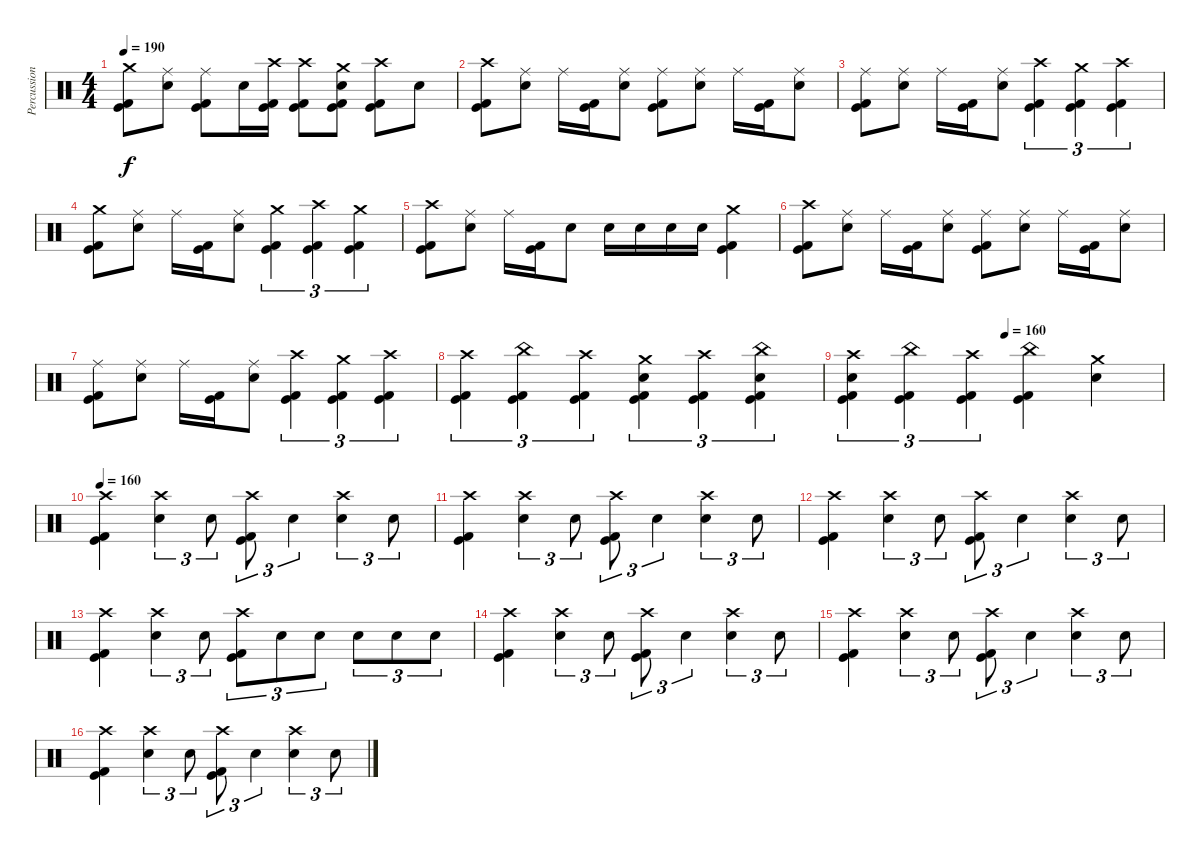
\track ("Percussion" "Percussion") {instrument percussion}
\staff {score}
\articulation defaults
\ts (4 4)
\tempo 190
\clef neutral
\ks c
("Crash medium (hit)" "Kick (hit)" "Kick (hit) 2").8{dy f} ("Ride (middle)" "Electric Snare (hit)").8 ("Ride (middle)" "Kick (hit)" "Kick (hit) 2").8 "Electric Snare (hit)".16 ("Crash high (hit)" "Kick (hit)" "Kick (hit) 2").16 ("Crash high (hit)" "Kick (hit)" "Kick (hit) 2").8 ("Crash medium (hit)" "Electric Snare (hit)" "Kick (hit)" "Kick (hit) 2").8 ("Crash high (hit)" "Kick (hit)" "Kick (hit) 2").8 "Electric Snare (hit)".8 |
("Crash high (hit)" "Kick (hit)" "Kick (hit) 2").8 ("Ride (middle)" "Electric Snare (hit)").8 "Ride (middle)".16 ("Kick (hit)" "Kick (hit) 2").16 ("Ride (middle)" "Electric Snare (hit)").8 ("Ride (middle)" "Kick (hit)" "Kick (hit) 2").8 ("Ride (middle)" "Electric Snare (hit)").8 "Ride (middle)".16 ("Kick (hit)" "Kick (hit) 2").16 ("Ride (middle)" "Electric Snare (hit)").8 |
("Ride (middle)" "Kick (hit)" "Kick (hit) 2").8 ("Ride (middle)" "Electric Snare (hit)").8 "Ride (middle)".16 ("Kick (hit)" "Kick (hit) 2").16 ("Ride (middle)" "Electric Snare (hit)").8 ("Crash high (hit)" "Kick (hit)" "Kick (hit) 2").4{tu (3 2)} ("Crash medium (hit)" "Kick (hit)" "Kick (hit) 2").4{tu (3 2)} ("Crash high (hit)" "Kick (hit)" "Kick (hit) 2").4{tu (3 2)} |
("Crash medium (hit)" "Kick (hit)" "Kick (hit) 2").8 ("Ride (middle)" "Electric Snare (hit)").8 "Ride (middle)".16 ("Kick (hit)" "Kick (hit) 2").16 ("Ride (middle)" "Electric Snare (hit)").8 ("Crash medium (hit)" "Kick (hit)" "Kick (hit) 2").4{tu (3 2)} ("Crash high (hit)" "Kick (hit)" "Kick (hit) 2").4{tu (3 2)} ("Crash medium (hit)" "Kick (hit)" "Kick (hit) 2").4{tu (3 2)} |
("Crash high (hit)" "Kick (hit)" "Kick (hit) 2").8 ("Ride (middle)" "Electric Snare (hit)").8 "Ride (middle)".16 ("Kick (hit)" "Kick (hit) 2").16 "Electric Snare (hit)".8 "Electric Snare (hit)".16 "Electric Snare (hit)".16 "Electric Snare (hit)".16 "Electric Snare (hit)".16 ("Crash medium (hit)" "Kick (hit)" "Kick (hit) 2").4 |
("Crash high (hit)" "Kick (hit)" "Kick (hit) 2").8 ("Ride (middle)" "Electric Snare (hit)").8 "Ride (middle)".16 ("Kick (hit)" "Kick (hit) 2").16 ("Ride (middle)" "Electric Snare (hit)").8 ("Ride (middle)" "Kick (hit)" "Kick (hit) 2").8 ("Ride (middle)" "Electric Snare (hit)").8 "Ride (middle)".16 ("Kick (hit)" "Kick (hit) 2").16 ("Ride (middle)" "Electric Snare (hit)").8 |
("Ride (middle)" "Kick (hit)" "Kick (hit) 2").8 ("Ride (middle)" "Electric Snare (hit)").8 "Ride (middle)".16 ("Kick (hit)" "Kick (hit) 2").16 ("Ride (middle)" "Electric Snare (hit)").8 ("Crash high (hit)" "Kick (hit)" "Kick (hit) 2").4{tu (3 2)} ("Crash medium (hit)" "Kick (hit)" "Kick (hit) 2").4{tu (3 2)} ("Crash high (hit)" "Kick (hit)" "Kick (hit) 2").4{tu (3 2)} |
("Crash high (hit)" "Kick (hit)" "Kick (hit) 2").4{tu (3 2)} ("China (hit)" "Kick (hit)" "Kick (hit) 2").4{tu (3 2)} ("Crash high (hit)" "Kick (hit)" "Kick (hit) 2").4{tu (3 2)} ("Crash medium (hit)" "Electric Snare (hit)" "Kick (hit)" "Kick (hit) 2").4{tu (3 2)} ("Crash high (hit)" "Kick (hit)" "Kick (hit) 2").4{tu (3 2)} ("China (hit)" "Electric Snare (hit)" "Kick (hit)" "Kick (hit) 2").4{tu (3 2)} |
\tempo (160 0.5)
("Crash high (hit)" "Electric Snare (hit)" "Kick (hit)" "Kick (hit) 2").4{tu (3 2)} ("China (hit)" "Kick (hit)" "Kick (hit) 2").4{tu (3 2)} ("Crash high (hit)" "Kick (hit)" "Kick (hit) 2").4{tu (3 2)} ("China (hit)" "Kick (hit)" "Kick (hit) 2").4 ("Crash medium (hit)" "Electric Snare (hit)").4 |
\tempo 160
("Crash high (hit)" "Kick (hit)" "Kick (hit) 2").4 ("Crash high (hit)" "Electric Snare (hit)").4{tu (3 2)} "Electric Snare (hit)".8{tu (3 2)} ("Crash high (hit)" "Kick (hit)" "Kick (hit) 2").8{tu (3 2)} "Electric Snare (hit)".4{tu (3 2)} ("Crash high (hit)" "Electric Snare (hit)").4{tu (3 2)} "Electric Snare (hit)".8{tu (3 2)} |
("Crash high (hit)" "Kick (hit)" "Kick (hit) 2").4 ("Crash high (hit)" "Electric Snare (hit)").4{tu (3 2)} "Electric Snare (hit)".8{tu (3 2)} ("Crash high (hit)" "Kick (hit)" "Kick (hit) 2").8{tu (3 2)} "Electric Snare (hit)".4{tu (3 2)} ("Crash high (hit)" "Electric Snare (hit)").4{tu (3 2)} "Electric Snare (hit)".8{tu (3 2)} |
("Crash high (hit)" "Kick (hit)" "Kick (hit) 2").4 ("Crash high (hit)" "Electric Snare (hit)").4{tu (3 2)} "Electric Snare (hit)".8{tu (3 2)} ("Crash high (hit)" "Kick (hit)" "Kick (hit) 2").8{tu (3 2)} "Electric Snare (hit)".4{tu (3 2)} ("Crash high (hit)" "Electric Snare (hit)").4{tu (3 2)} "Electric Snare (hit)".8{tu (3 2)} |
("Crash high (hit)" "Kick (hit)" "Kick (hit) 2").4 ("Crash high (hit)" "Electric Snare (hit)").4{tu (3 2)} "Electric Snare (hit)".8{tu (3 2)} ("Crash high (hit)" "Kick (hit)" "Kick (hit) 2").8{tu (3 2)} "Electric Snare (hit)".8{tu (3 2)} "Electric Snare (hit)".8{tu (3 2)} "Electric Snare (hit)".8{tu (3 2)} "Electric Snare (hit)".8{tu (3 2)} "Electric Snare (hit)".8{tu (3 2)} |
("Crash high (hit)" "Kick (hit)" "Kick (hit) 2").4 ("Crash high (hit)" "Electric Snare (hit)").4{tu (3 2)} "Electric Snare (hit)".8{tu (3 2)} ("Crash high (hit)" "Kick (hit)" "Kick (hit) 2").8{tu (3 2)} "Electric Snare (hit)".4{tu (3 2)} ("Crash high (hit)" "Electric Snare (hit)").4{tu (3 2)} "Electric Snare (hit)".8{tu (3 2)} |
("Crash high (hit)" "Kick (hit)" "Kick (hit) 2").4 ("Crash high (hit)" "Electric Snare (hit)").4{tu (3 2)} "Electric Snare (hit)".8{tu (3 2)} ("Crash high (hit)" "Kick (hit)" "Kick (hit) 2").8{tu (3 2)} "Electric Snare (hit)".4{tu (3 2)} ("Crash high (hit)" "Electric Snare (hit)").4{tu (3 2)} "Electric Snare (hit)".8{tu (3 2)} |
("Crash high (hit)" "Kick (hit)" "Kick (hit) 2").4 ("Crash high (hit)" "Electric Snare (hit)").4{tu (3 2)} "Electric Snare (hit)".8{tu (3 2)} ("Crash high (hit)" "Kick (hit)" "Kick (hit) 2").8{tu (3 2)} "Electric Snare (hit)".4{tu (3 2)} ("Crash high (hit)" "Electric Snare (hit)").4{tu (3 2)} "Electric Snare (hit)".8{tu (3 2)}
